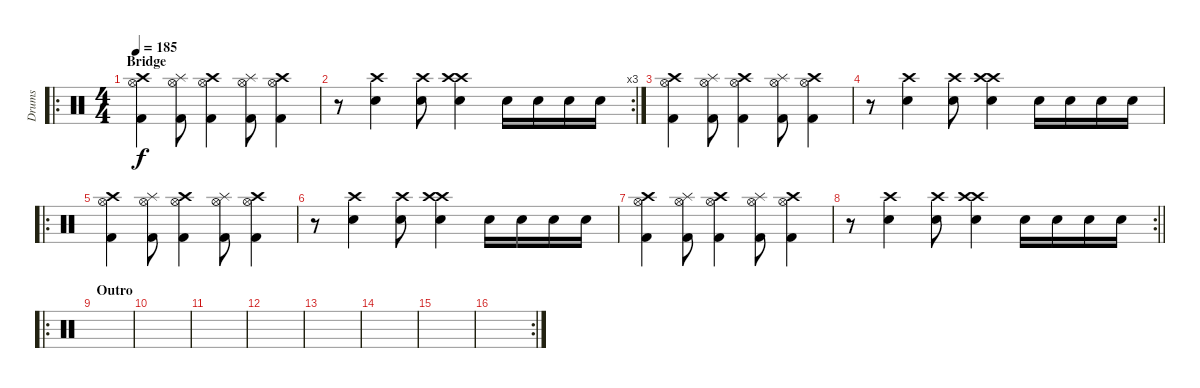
\track ("Drums" "Drums") {instrument percussion}
\staff {score}
\articulation defaults
\ro
\ts (4 4)
\section ("" "Bridge")
\tempo 185
\clef neutral
\ks c
("Crash high (hit)" "Hi-Hat (open)" "Kick (hit) 2").4{dy f} ("Splash (hit)" "Hi-Hat (open)" "Kick (hit) 2").8 ("Crash high (hit)" "Hi-Hat (open)" "Kick (hit) 2").4 ("Splash (hit)" "Hi-Hat (open)" "Kick (hit) 2").8 ("Crash high (hit)" "Hi-Hat (open)" "Kick (hit) 2").4 |
\rc 3
r.8 ("Crash high (hit)" "Electric Snare (hit)").4 ("Crash high (hit)" "Electric Snare (hit)").8 ("Crash high (hit)" "Crash high (hit)" "Electric Snare (hit)").4 "Electric Snare (hit)".16 "Electric Snare (hit)".16 "Electric Snare (hit)".16 "Electric Snare (hit)".16 |
("Crash high (hit)" "Hi-Hat (open)" "Kick (hit) 2").4 ("Splash (hit)" "Hi-Hat (open)" "Kick (hit) 2").8 ("Crash high (hit)" "Hi-Hat (open)" "Kick (hit) 2").4 ("Splash (hit)" "Hi-Hat (open)" "Kick (hit) 2").8 ("Crash high (hit)" "Hi-Hat (open)" "Kick (hit) 2").4 |
r.8 ("Crash high (hit)" "Electric Snare (hit)").4 ("Crash high (hit)" "Electric Snare (hit)").8 ("Crash high (hit)" "Crash high (hit)" "Electric Snare (hit)").4 "Electric Snare (hit)".16 "Electric Snare (hit)".16 "Electric Snare (hit)".16 "Electric Snare (hit)".16 |
\ro
("Crash high (hit)" "Hi-Hat (open)" "Kick (hit) 2").4 ("Splash (hit)" "Hi-Hat (open)" "Kick (hit) 2").8 ("Crash high (hit)" "Hi-Hat (open)" "Kick (hit) 2").4 ("Splash (hit)" "Hi-Hat (open)" "Kick (hit) 2").8 ("Crash high (hit)" "Hi-Hat (open)" "Kick (hit) 2").4 |
r.8 ("Crash high (hit)" "Electric Snare (hit)").4 ("Crash high (hit)" "Electric Snare (hit)").8 ("Crash high (hit)" "Crash high (hit)" "Electric Snare (hit)").4 "Electric Snare (hit)".16 "Electric Snare (hit)".16 "Electric Snare (hit)".16 "Electric Snare (hit)".16 |
("Crash high (hit)" "Hi-Hat (open)" "Kick (hit) 2").4 ("Splash (hit)" "Hi-Hat (open)" "Kick (hit) 2").8 ("Crash high (hit)" "Hi-Hat (open)" "Kick (hit) 2").4 ("Splash (hit)" "Hi-Hat (open)" "Kick (hit) 2").8 ("Crash high (hit)" "Hi-Hat (open)" "Kick (hit) 2").4 |
\rc 2
\barLineRight lightlight
r.8 ("Crash high (hit)" "Electric Snare (hit)").4 ("Crash high (hit)" "Electric Snare (hit)").8 ("Crash high (hit)" "Crash high (hit)" "Electric Snare (hit)").4 "Electric Snare (hit)".16 "Electric Snare (hit)".16 "Electric Snare (hit)".16 "Electric Snare (hit)".16 |
\ro
\section ("" "Outro")
|
|
|
|
|
|
|
\rc 2
